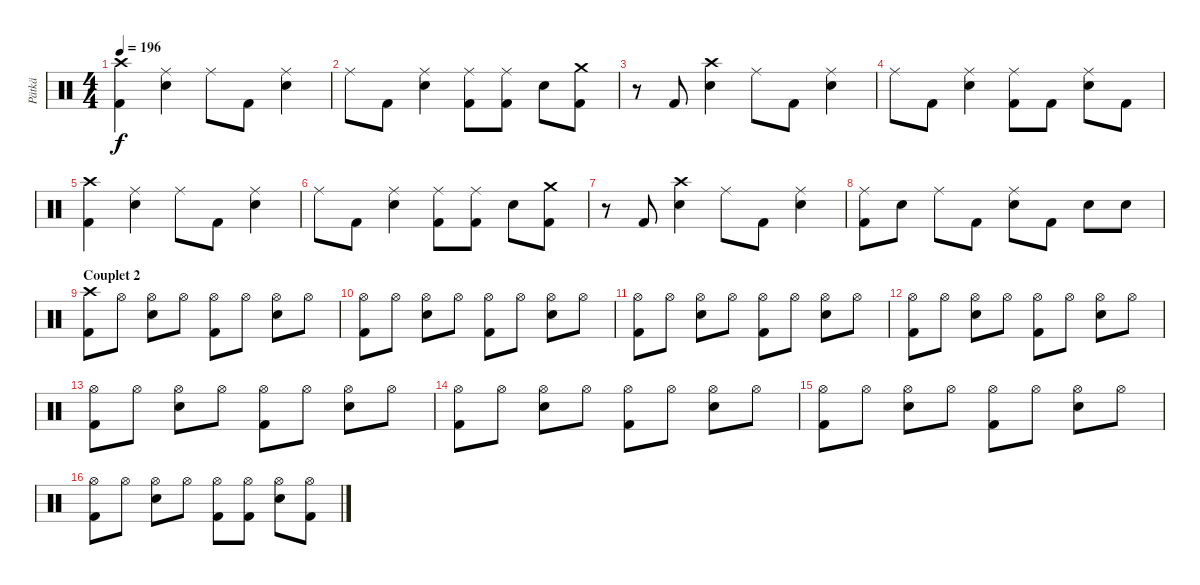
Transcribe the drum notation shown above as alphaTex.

\track ("Pätkä" "Pätkä") {instrument percussion}
\staff {score}
\articulation defaults
\ts (4 4)
\tempo 196
\clef neutral
\ks c
("Crash high (hit)" "Kick (hit) 2").4{dy f} ("Ride (middle)" "Electric Snare (hit)").4 "Ride (middle)".8 "Kick (hit) 2".8 ("Ride (middle)" "Electric Snare (hit)").4 |
"Ride (middle)".8 "Kick (hit) 2".8 ("Ride (middle)" "Electric Snare (hit)").4 ("Ride (middle)" "Kick (hit) 2").8 ("Ride (middle)" "Kick (hit) 2").8 "Electric Snare (hit)".8 ("Crash medium (hit)" "Kick (hit) 2").8 |
r.8 "Kick (hit) 2".8 ("Crash high (hit)" "Electric Snare (hit)").4 "Ride (middle)".8 "Kick (hit) 2".8 ("Ride (middle)" "Electric Snare (hit)").4 |
"Ride (middle)".8 "Kick (hit) 2".8 ("Ride (middle)" "Electric Snare (hit)").4 ("Ride (middle)" "Kick (hit) 2").8 "Kick (hit) 2".8 ("Ride (middle)" "Electric Snare (hit)").8 "Kick (hit) 2".8 |
("Crash high (hit)" "Kick (hit) 2").4 ("Ride (middle)" "Electric Snare (hit)").4 "Ride (middle)".8 "Kick (hit) 2".8 ("Ride (middle)" "Electric Snare (hit)").4 |
"Ride (middle)".8 "Kick (hit) 2".8 ("Ride (middle)" "Electric Snare (hit)").4 ("Ride (middle)" "Kick (hit) 2").8 ("Ride (middle)" "Kick (hit) 2").8 "Electric Snare (hit)".8 ("Crash medium (hit)" "Kick (hit) 2").8 |
r.8 "Kick (hit) 2".8 ("Crash high (hit)" "Electric Snare (hit)").4 "Ride (middle)".8 "Kick (hit) 2".8 ("Ride (middle)" "Electric Snare (hit)").4 |
("Ride (middle)" "Kick (hit) 2").8 "Electric Snare (hit)".8 "Ride (middle)".8 "Kick (hit) 2".8 ("Ride (middle)" "Electric Snare (hit)").8 "Kick (hit) 2".8 "Electric Snare (hit)".8 "Electric Snare (hit)".8 |
\section ("" "Couplet 2")
("Crash high (hit)" "Kick (hit) 2").8 "Hi-Hat (open)".8 ("Hi-Hat (open)" "Electric Snare (hit)").8 "Hi-Hat (open)".8 ("Hi-Hat (open)" "Kick (hit) 2").8 "Hi-Hat (open)".8 ("Hi-Hat (open)" "Electric Snare (hit)").8 "Hi-Hat (open)".8 |
("Hi-Hat (open)" "Kick (hit) 2").8 "Hi-Hat (open)".8 ("Hi-Hat (open)" "Electric Snare (hit)").8 "Hi-Hat (open)".8 ("Hi-Hat (open)" "Kick (hit) 2").8 "Hi-Hat (open)".8 ("Hi-Hat (open)" "Electric Snare (hit)").8 "Hi-Hat (open)".8 |
("Hi-Hat (open)" "Kick (hit) 2").8 "Hi-Hat (open)".8 ("Hi-Hat (open)" "Electric Snare (hit)").8 "Hi-Hat (open)".8 ("Hi-Hat (open)" "Kick (hit) 2").8 "Hi-Hat (open)".8 ("Hi-Hat (open)" "Electric Snare (hit)").8 "Hi-Hat (open)".8 |
("Hi-Hat (open)" "Kick (hit) 2").8 "Hi-Hat (open)".8 ("Hi-Hat (open)" "Electric Snare (hit)").8 "Hi-Hat (open)".8 ("Hi-Hat (open)" "Kick (hit) 2").8 "Hi-Hat (open)".8 ("Hi-Hat (open)" "Electric Snare (hit)").8 "Hi-Hat (open)".8 |
("Hi-Hat (open)" "Kick (hit) 2").8 "Hi-Hat (open)".8 ("Hi-Hat (open)" "Electric Snare (hit)").8 "Hi-Hat (open)".8 ("Hi-Hat (open)" "Kick (hit) 2").8 "Hi-Hat (open)".8 ("Hi-Hat (open)" "Electric Snare (hit)").8 "Hi-Hat (open)".8 |
("Hi-Hat (open)" "Kick (hit) 2").8 "Hi-Hat (open)".8 ("Hi-Hat (open)" "Electric Snare (hit)").8 "Hi-Hat (open)".8 ("Hi-Hat (open)" "Kick (hit) 2").8 "Hi-Hat (open)".8 ("Hi-Hat (open)" "Electric Snare (hit)").8 "Hi-Hat (open)".8 |
("Hi-Hat (open)" "Kick (hit) 2").8 "Hi-Hat (open)".8 ("Hi-Hat (open)" "Electric Snare (hit)").8 "Hi-Hat (open)".8 ("Hi-Hat (open)" "Kick (hit) 2").8 "Hi-Hat (open)".8 ("Hi-Hat (open)" "Electric Snare (hit)").8 "Hi-Hat (open)".8 |
("Hi-Hat (open)" "Kick (hit) 2").8 "Hi-Hat (open)".8 ("Hi-Hat (open)" "Electric Snare (hit)").8 "Hi-Hat (open)".8 ("Hi-Hat (open)" "Kick (hit) 2").8 ("Hi-Hat (open)" "Kick (hit) 2").8 ("Hi-Hat (open)" "Electric Snare (hit)").8 ("Hi-Hat (open)" "Kick (hit) 2").8
